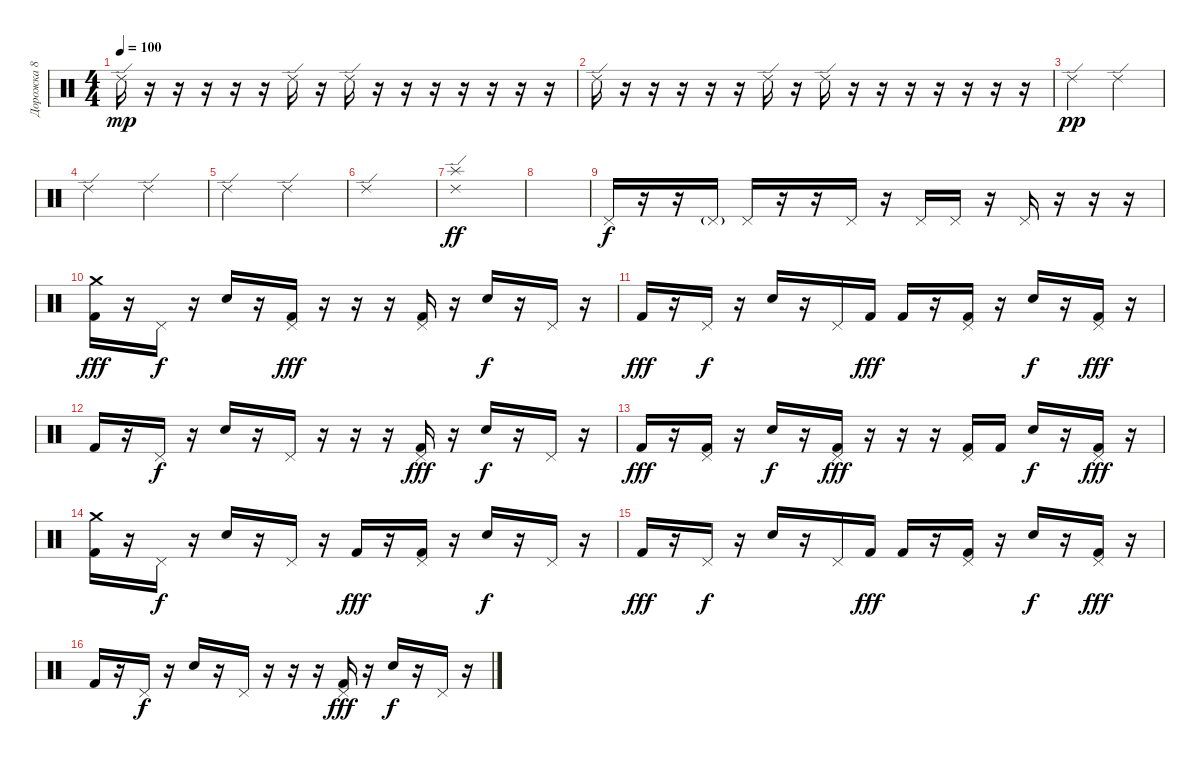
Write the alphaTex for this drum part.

\track ("Дорожка 8" "Дорожка 8") {instrument percussion}
\staff {score}
\articulation defaults
\ts (4 4)
\tempo 100
\clef neutral
\ks c "Ride (edge) 2".16{dy mp}
r.16 r.16 r.16 r.16 r.16 "Ride (edge) 2".16 r.16 "Ride (edge) 2".16 r.16 r.16 r.16 r.16 r.16 r.16 r.16 |
"Ride (edge) 2".16 r.16 r.16 r.16 r.16 r.16 "Ride (edge) 2".16 r.16 "Ride (edge) 2".16 r.16 r.16 r.16 r.16 r.16 r.16 r.16 |
"Ride (edge) 2".2{dy pp} "Ride (edge) 2".2 |
"Ride (edge) 2".2 "Ride (edge) 2".2 |
"Ride (edge) 2".2 "Ride (edge) 2".2 |
"Ride (edge) 2".1 |
("Ride (edge) 2" "Splash (hit)").1{dy ff} |
|
"Pedal Hi-Hat (hit)".16{dy f} r.16 r.16 "Pedal Hi-Hat (hit)"{g}.16 "Pedal Hi-Hat (hit)".16 r.16 r.16 "Pedal Hi-Hat (hit)".16 r.16 "Pedal Hi-Hat (hit)".16 "Pedal Hi-Hat (hit)".16 r.16 "Pedal Hi-Hat (hit)".16 r.16 r.16 r.16 |
("Crash medium (hit)" "Kick (hit) 2").16{dy fff} r.16 "Pedal Hi-Hat (hit)".16{dy f} r.16 "Snare (hit) 2".16 r.16 ("Pedal Hi-Hat (hit)" "Kick (hit) 2").16{dy fff} r.16 r.16 r.16 ("Pedal Hi-Hat (hit)" "Kick (hit) 2").16 r.16 "Snare (hit) 2".16{dy f} r.16 "Pedal Hi-Hat (hit)".16 r.16 |
"Kick (hit) 2".16{dy fff} r.16 "Pedal Hi-Hat (hit)".16{dy f} r.16 "Snare (hit) 2".16 r.16 "Pedal Hi-Hat (hit)".16 "Kick (hit) 2".16{dy fff} "Kick (hit) 2".16 r.16 ("Pedal Hi-Hat (hit)" "Kick (hit) 2").16 r.16 "Snare (hit) 2".16{dy f} r.16 ("Pedal Hi-Hat (hit)" "Kick (hit) 2").16{dy fff} r.16 |
"Kick (hit) 2".16 r.16 "Pedal Hi-Hat (hit)".16{dy f} r.16 "Snare (hit) 2".16 r.16 "Pedal Hi-Hat (hit)".16 r.16 r.16 r.16 ("Pedal Hi-Hat (hit)" "Kick (hit) 2").16{dy fff} r.16 "Snare (hit) 2".16{dy f} r.16 "Pedal Hi-Hat (hit)".16 r.16 |
"Kick (hit) 2".16{dy fff} r.16 ("Pedal Hi-Hat (hit)" "Kick (hit) 2").16 r.16 "Snare (hit) 2".16{dy f} r.16 ("Pedal Hi-Hat (hit)" "Kick (hit) 2").16{dy fff} r.16 r.16 r.16 ("Pedal Hi-Hat (hit)" "Kick (hit) 2").16 "Kick (hit) 2".16 "Snare (hit) 2".16{dy f} r.16 ("Pedal Hi-Hat (hit)" "Kick (hit) 2").16{dy fff} r.16 |
("Crash medium (hit)" "Kick (hit) 2").16 r.16 "Pedal Hi-Hat (hit)".16{dy f} r.16 "Snare (hit) 2".16 r.16 "Pedal Hi-Hat (hit)".16 r.16 "Kick (hit) 2".16{dy fff} r.16 ("Pedal Hi-Hat (hit)" "Kick (hit) 2").16 r.16 "Snare (hit) 2".16{dy f} r.16 "Pedal Hi-Hat (hit)".16 r.16 |
"Kick (hit) 2".16{dy fff} r.16 "Pedal Hi-Hat (hit)".16{dy f} r.16 "Snare (hit) 2".16 r.16 "Pedal Hi-Hat (hit)".16 "Kick (hit) 2".16{dy fff} "Kick (hit) 2".16 r.16 ("Pedal Hi-Hat (hit)" "Kick (hit) 2").16 r.16 "Snare (hit) 2".16{dy f} r.16 ("Pedal Hi-Hat (hit)" "Kick (hit) 2").16{dy fff} r.16 |
"Kick (hit) 2".16 r.16 "Pedal Hi-Hat (hit)".16{dy f} r.16 "Snare (hit) 2".16 r.16 "Pedal Hi-Hat (hit)".16 r.16 r.16 r.16 ("Pedal Hi-Hat (hit)" "Kick (hit) 2").16{dy fff} r.16 "Snare (hit) 2".16{dy f} r.16 "Pedal Hi-Hat (hit)".16 r.16
